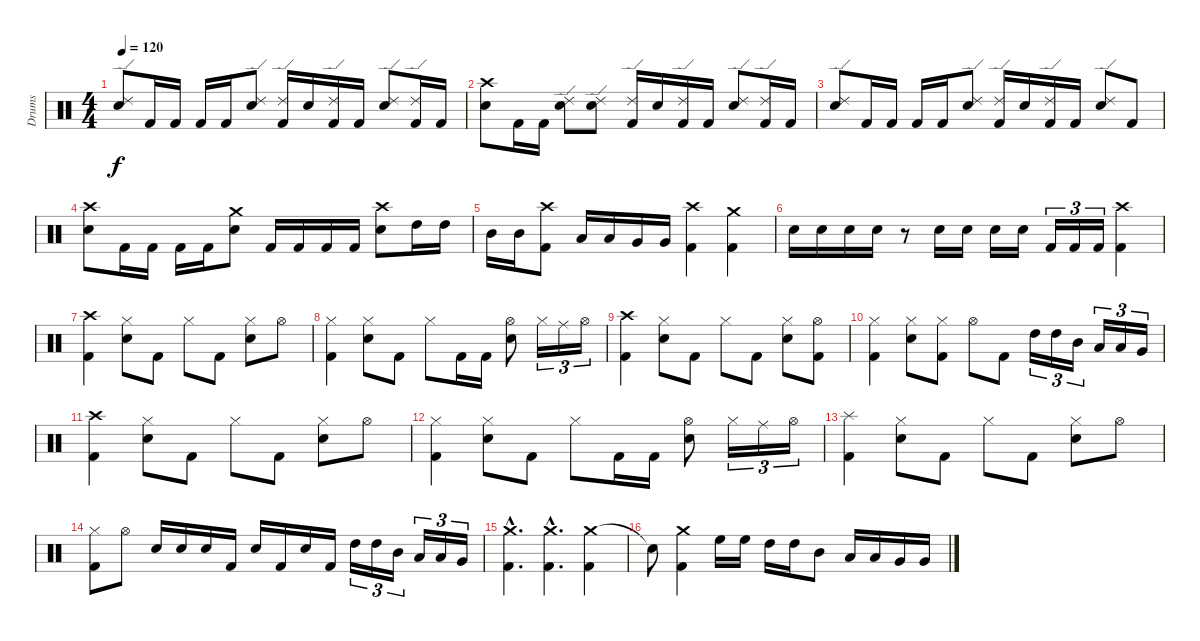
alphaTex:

\track ("Drums" "Drums") {instrument percussion}
\staff {score}
\articulation defaults
\ts (4 4)
\tempo 120
\clef neutral
\ks c
("Ride (edge) 2" "Snare (hit) 2").8{dy f} "Kick (hit) 2".16 "Kick (hit) 2".16 "Kick (hit) 2".16 "Kick (hit) 2".16 ("Ride (edge) 2" "Snare (hit) 2").8 ("Ride (edge) 2" "Kick (hit) 2").16 "Snare (hit) 2".16 ("Ride (edge) 2" "Kick (hit) 2").16 "Kick (hit) 2".16 ("Ride (edge) 2" "Snare (hit) 2").8 ("Ride (edge) 2" "Kick (hit) 2").16 "Kick (hit) 2".16 |
("Crash high (hit)" "Snare (hit) 2").8 "Kick (hit) 2".16 "Kick (hit) 2".16 ("Ride (edge) 2" "Snare (hit) 2").8 ("Ride (edge) 2" "Snare (hit) 2").8 ("Ride (edge) 2" "Kick (hit) 2").16 "Snare (hit) 2".16 ("Ride (edge) 2" "Kick (hit) 2").16 "Kick (hit) 2".16 ("Ride (edge) 2" "Snare (hit) 2").8 ("Ride (edge) 2" "Kick (hit) 2").16 "Kick (hit) 2".16 |
("Ride (edge) 2" "Snare (hit) 2").8 "Kick (hit) 2".16 "Kick (hit) 2".16 "Kick (hit) 2".16 "Kick (hit) 2".16 ("Ride (edge) 2" "Snare (hit) 2").8 ("Ride (edge) 2" "Kick (hit) 2").16 "Snare (hit) 2".16 ("Ride (edge) 2" "Kick (hit) 2").16 "Kick (hit) 2".16 ("Ride (edge) 2" "Snare (hit) 2").8 "Kick (hit) 2".8 |
("Crash high (hit)" "Snare (hit) 2").8 "Kick (hit) 2".16 "Kick (hit) 2".16 "Kick (hit) 2".16 "Kick (hit) 2".16 ("Crash medium (hit)" "Snare (hit) 2").8 "Kick (hit) 2".16 "Kick (hit) 2".16 "Kick (hit) 2".16 "Kick (hit) 2".16 ("Crash high (hit)" "Snare (hit) 2").8 "High Tom (hit)".16 "High Tom (hit)".16 |
"Mid Tom (hit)".16 "Mid Tom (hit)".16 ("Crash high (hit)" "Kick (hit) 2").8 "Low Tom (hit)".16 "Low Tom (hit)".16 "Very Low Tom (hit)".16 "Very Low Tom (hit)".16 ("Crash high (hit)" "Kick (hit) 2").4 ("Crash medium (hit)" "Kick (hit) 2").4 |
"Snare (hit) 2".16 "Snare (hit) 2".16 "Snare (hit) 2".16 "Snare (hit) 2".16 r.8 "Snare (hit) 2".16 "Snare (hit) 2".16 "Snare (hit) 2".16 "Snare (hit) 2".16 "Kick (hit) 2".16{tu (3 2)} "Kick (hit) 2".16{tu (3 2)} "Kick (hit) 2".16{tu (3 2)} ("Crash high (hit)" "Kick (hit) 2").4 |
("Crash high (hit)" "Kick (hit) 2").4 ("Hi-Hat (closed)" "Snare (hit) 2").8 "Kick (hit) 2".8 "Hi-Hat (closed)".8 "Kick (hit) 2".8 ("Hi-Hat (closed)" "Snare (hit) 2").8 "Hi-Hat (open)".8 |
("Hi-Hat (closed)" "Kick (hit) 2").4 ("Hi-Hat (closed)" "Snare (hit) 2").8 "Kick (hit) 2".8 "Hi-Hat (closed)".8 "Kick (hit) 2".16 "Kick (hit) 2".16 ("Hi-Hat (open)" "Snare (hit) 2").8 "Hi-Hat (closed)".16{tu (3 2)} "Ride (middle)".16{tu (3 2)} "Hi-Hat (open)".16{tu (3 2)} |
("Crash high (hit)" "Kick (hit) 2").4 ("Hi-Hat (closed)" "Snare (hit) 2").8 "Kick (hit) 2".8 "Hi-Hat (closed)".8 "Kick (hit) 2".8 ("Hi-Hat (closed)" "Snare (hit) 2").8 ("Hi-Hat (open)" "Kick (hit) 2").8 |
("Hi-Hat (closed)" "Kick (hit) 2").4 ("Hi-Hat (closed)" "Snare (hit) 2").8 ("Hi-Hat (closed)" "Kick (hit) 2").8 "Hi-Hat (open)".8 "Kick (hit) 2".8 "High Tom (hit)".16{tu (3 2)} "High Tom (hit)".16{tu (3 2)} "Mid Tom (hit)".16{tu (3 2)} "Low Tom (hit)".16{tu (3 2)} "Low Tom (hit)".16{tu (3 2)} "Very Low Tom (hit)".16{tu (3 2)} |
("Crash high (hit)" "Kick (hit) 2").4 ("Hi-Hat (closed)" "Snare (hit) 2").8 "Kick (hit) 2".8 "Hi-Hat (closed)".8 "Kick (hit) 2".8 ("Hi-Hat (closed)" "Snare (hit) 2").8 "Hi-Hat (open)".8 |
("Hi-Hat (closed)" "Kick (hit) 2").4 ("Hi-Hat (closed)" "Snare (hit) 2").8 "Kick (hit) 2".8 "Hi-Hat (closed)".8 "Kick (hit) 2".16 "Kick (hit) 2".16 ("Hi-Hat (open)" "Snare (hit) 2").8 "Hi-Hat (closed)".16{tu (3 2)} "Ride (middle)".16{tu (3 2)} "Hi-Hat (open)".16{tu (3 2)} |
("Splash (hit)" "Kick (hit) 2").4 ("Hi-Hat (closed)" "Snare (hit) 2").8 "Kick (hit) 2".8 "Hi-Hat (closed)".8 "Kick (hit) 2".8 ("Hi-Hat (closed)" "Snare (hit) 2").8 "Hi-Hat (open)".8 |
("Hi-Hat (closed)" "Kick (hit) 2").8 "Hi-Hat (open)".8 "Snare (hit) 2".16 "Snare (hit) 2".16 "Snare (hit) 2".16 "Kick (hit) 2".16 "Snare (hit) 2".16 "Kick (hit) 2".16 "Snare (hit) 2".16 "Kick (hit) 2".16 "High Tom (hit)".16{tu (3 2)} "High Tom (hit)".16{tu (3 2)} "Mid Tom (hit)".16{tu (3 2)} "Low Tom (hit)".16{tu (3 2)} "Low Tom (hit)".16{tu (3 2)} "Very Low Tom (hit)".16{tu (3 2)} |
("Crash medium (hit)"{hac} "Kick (hit) 2"{hac}).4{d} ("Crash medium (hit)"{hac} "Kick (hit) 2"{hac}).4{d} ("Crash medium (hit)" "Kick (hit) 2").4 |
"Snare (hit)"{t}.8 ("Crash medium (hit)" "Kick (hit) 2").4 "High Floor Tom (hit)".16 "High Floor Tom (hit)".16 "High Tom (hit)".16 "High Tom (hit)".16 "Mid Tom (hit)".8 "Low Tom (hit)".16 "Low Tom (hit)".16 "Very Low Tom (hit)".16 "Very Low Tom (hit)".16
